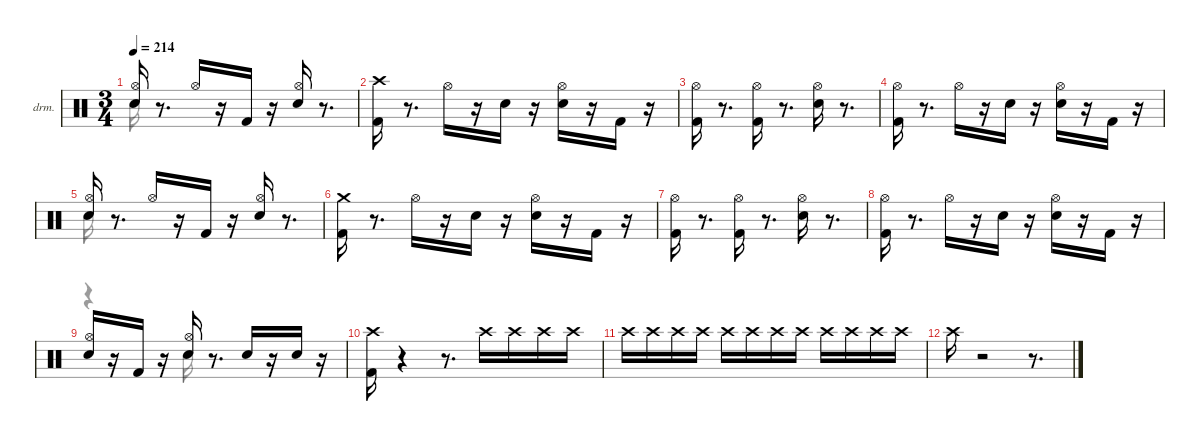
\hideDynamics
\bracketExtendMode nobrackets
\firstSystemTrackNameOrientation horizontal
\otherSystemsTrackNameOrientation horizontal
\track ("EZdrummer 3" "drm.") {instrument percussion}
\staff {score}
\articulation defaults
\voice
\ts (3 4)
\tempo 214
\clef neutral
\ks aminor
("Snare (hit) 2" "Hi-Hat (open)"{acc #}).16{dy pp} r.8{d} "Hi-Hat (open)"{acc #}.16{dy f} r.16 "Kick (hit) 2".16{dy mp} r.16 ("Snare (hit) 2" "Hi-Hat (open)"{acc #}).16{dy ff} r.8{d} |
("Kick (hit) 2" "Crash high (hit)"{acc #}).16{dy mf} r.8{d} "Hi-Hat (open)"{acc #}.16 r.16 "Snare (hit) 2".16{dy f} r.16 ("Snare (hit) 2" "Hi-Hat (open)"{acc #}).16{dy p} r.16 "Kick (hit) 2".16{dy mp} r.16 |
("Kick (hit) 2" "Hi-Hat (open)"{acc #}).16{dy f} r.8{d} ("Kick (hit) 2" "Hi-Hat (open)"{acc #}).16{dy mf} r.8{d} ("Snare (hit) 2" "Hi-Hat (open)"{acc #}).16{dy f} r.8{d} |
("Kick (hit) 2" "Hi-Hat (open)"{acc #}).16{dy mf} r.8{d} "Hi-Hat (open)"{acc #}.16{dy mp} r.16 "Snare (hit) 2".16{dy f} r.16 ("Snare (hit) 2" "Hi-Hat (open)"{acc #}).16 r.16 "Kick (hit) 2".16{dy mf} r.16 |
("Snare (hit) 2" "Hi-Hat (open)"{acc #}).16{dy pp} r.8{d} "Hi-Hat (open)"{acc #}.16{dy f} r.16 "Kick (hit) 2".16{dy mp} r.16 ("Snare (hit) 2" "Hi-Hat (open)"{acc #}).16{dy ff} r.8{d} |
("Kick (hit) 2" "Crash medium (hit)").16{dy mf} r.8{d} "Hi-Hat (open)"{acc #}.16 r.16 "Snare (hit) 2".16{dy f} r.16 ("Snare (hit) 2" "Hi-Hat (open)"{acc #}).16 r.16 "Kick (hit) 2".16{dy mp} r.16 |
("Kick (hit) 2" "Hi-Hat (open)"{acc #}).16{dy f} r.8{d} ("Kick (hit) 2" "Hi-Hat (open)"{acc #}).16 r.8{d} ("Snare (hit) 2" "Hi-Hat (open)"{acc #}).16{dy mp} r.8{d} |
("Kick (hit) 2" "Hi-Hat (open)"{acc #}).16{dy mf} r.8{d} "Hi-Hat (open)"{acc #}.16{dy mp} r.16 "Snare (hit) 2".16{dy f} r.16 ("Snare (hit) 2" "Hi-Hat (open)"{acc #}).16 r.16 "Kick (hit) 2".16{dy ff} r.16 |
("Snare (hit) 2" "Hi-Hat (open)"{acc #}).16 r.16 "Kick (hit) 2".16{dy mp} r.16 ("Snare (hit) 2" "Hi-Hat (open)"{acc #}).16{dy pp} r.8{d} "Snare (hit) 2".16{dy p} r.16 "Snare (hit) 2".16{dy ppp} r.16 |
("Kick (hit) 2" "Crash high (hit)"{acc #}).16{dy ff} r.4 r.8{d} "Crash high (hit)"{acc #}.16{dy ppp} "Crash high (hit)"{acc #}.16 "Crash high (hit)"{acc #}.16 "Crash high (hit)"{acc #}.16 |
"Crash high (hit)"{acc #}.16 "Crash high (hit)"{acc #}.16 "Crash high (hit)"{acc #}.16 "Crash high (hit)"{acc #}.16 "Crash high (hit)"{acc #}.16{dy pp} "Crash high (hit)"{acc #}.16 "Crash high (hit)"{acc #}.16{dy p} "Crash high (hit)"{acc #}.16{dy pp} "Crash high (hit)"{acc #}.16{dy p} "Crash high (hit)"{acc #}.16{dy pp} "Crash high (hit)"{acc #}.16{dy mp} "Crash high (hit)"{acc #}.16{dy p} |
"Crash high (hit)"{acc #}.16{dy f} r.2 r.8{d}
\voice
\clef neutral
\ottava regular
\simile none
\ks aminor "Snare (hit) 2".16{dy ff}
|
|
|
|
"Snare (hit) 2".16 |
|
|
|
r.4 "Snare (hit) 2".16{dy fff} |
|
|
